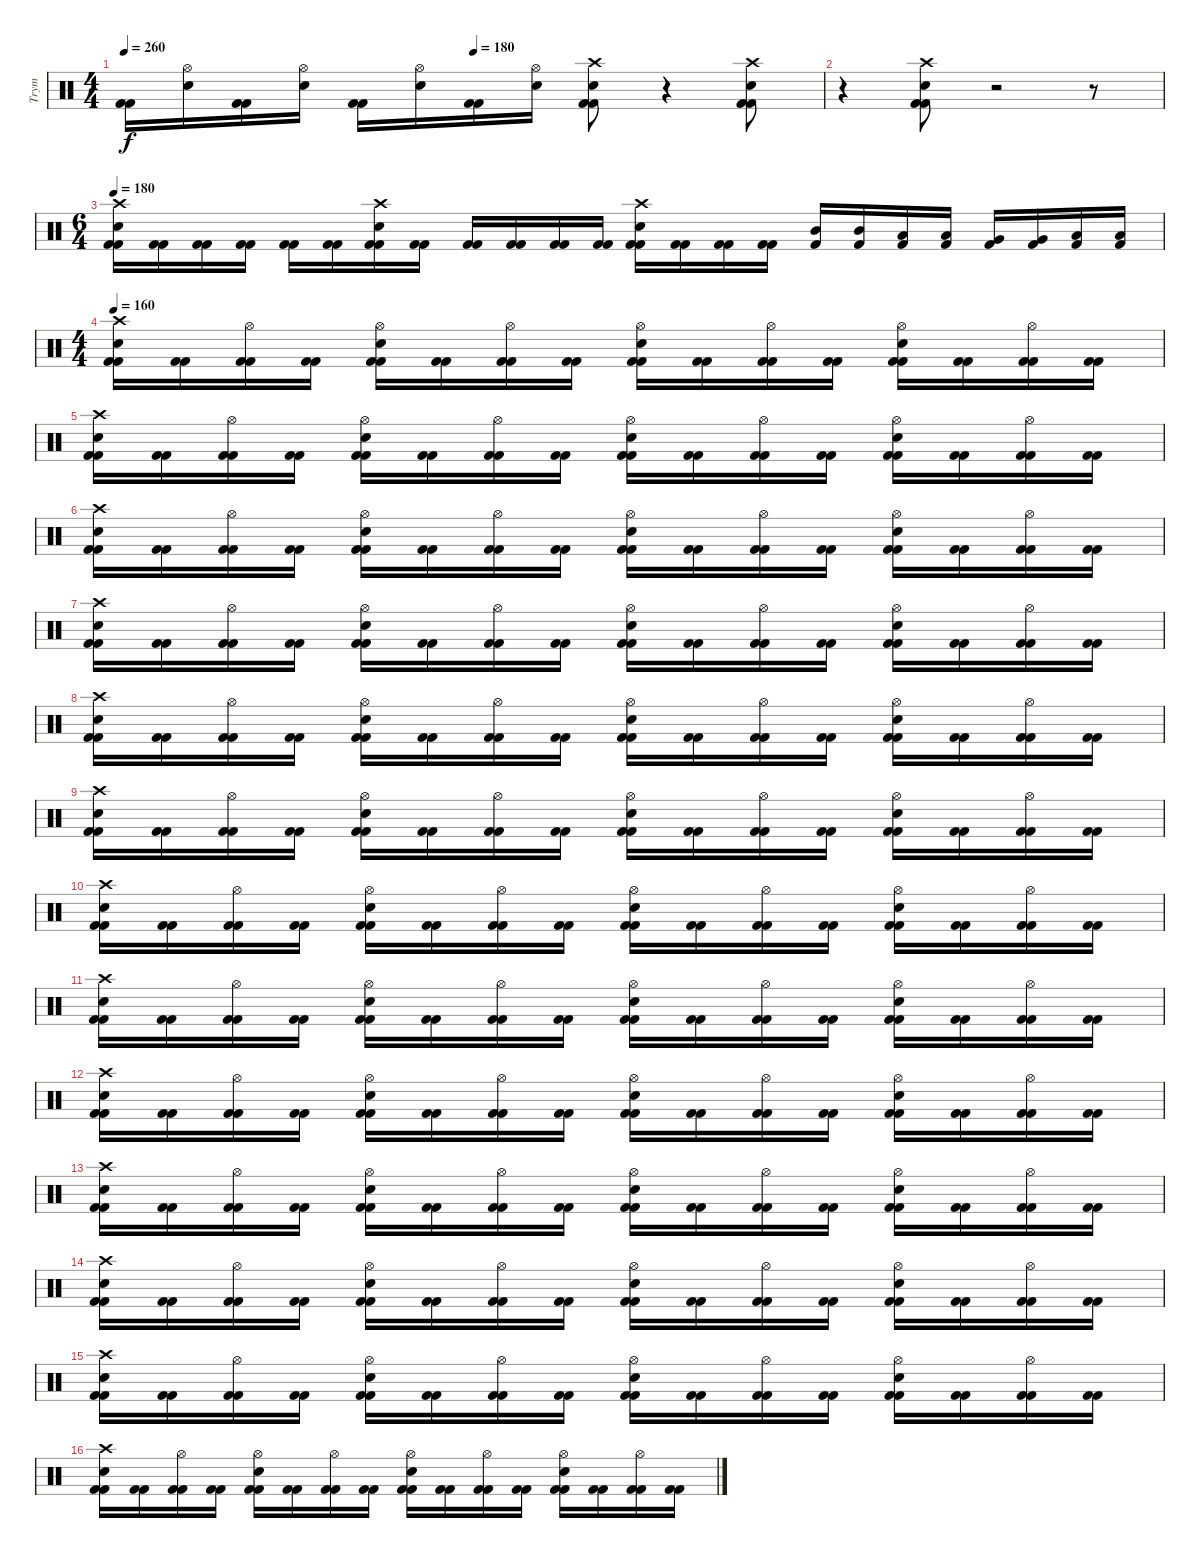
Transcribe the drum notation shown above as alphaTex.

\track ("Trym" "Trym") {instrument percussion}
\staff {score}
\articulation defaults
\ts (4 4)
\tempo 260
\tempo (180 0.5)
\clef neutral
\ks c
("Kick (hit) 2" "Kick (hit) 2").16{dy f} ("Hi-Hat (open)" "Snare (hit) 2").16 ("Kick (hit) 2" "Kick (hit) 2").16 ("Hi-Hat (open)" "Snare (hit) 2").16 ("Kick (hit) 2" "Kick (hit) 2").16 ("Hi-Hat (open)" "Snare (hit) 2").16 ("Kick (hit) 2" "Kick (hit) 2").16 ("Hi-Hat (open)" "Snare (hit) 2").16 ("Kick (hit) 2" "Crash high (hit)" "Snare (hit) 2" "Kick (hit) 2").8 r.4 ("Kick (hit) 2" "Crash high (hit)" "Snare (hit) 2" "Kick (hit) 2").8 |
r.4 ("Kick (hit) 2" "Crash high (hit)" "Snare (hit) 2" "Kick (hit) 2").8 r.2 r.8 |
\ts (6 4)
\tempo 180
("Kick (hit) 2" "Crash high (hit)" "Snare (hit) 2" "Kick (hit) 2").16 ("Kick (hit) 2" "Kick (hit) 2").16 ("Kick (hit) 2" "Kick (hit) 2").16 ("Kick (hit) 2" "Kick (hit) 2").16 ("Kick (hit) 2" "Kick (hit) 2").16 ("Kick (hit) 2" "Kick (hit) 2").16 ("Kick (hit) 2" "Crash high (hit)" "Snare (hit) 2" "Kick (hit) 2").16 ("Kick (hit) 2" "Kick (hit) 2").16 ("Kick (hit) 2" "Kick (hit) 2").16 ("Kick (hit) 2" "Kick (hit) 2").16 ("Kick (hit) 2" "Kick (hit) 2").16 ("Kick (hit) 2" "Kick (hit) 2").16 ("Kick (hit) 2" "Crash high (hit)" "Snare (hit) 2" "Kick (hit) 2").16 ("Kick (hit) 2" "Kick (hit) 2").16 ("Kick (hit) 2" "Kick (hit) 2").16 ("Kick (hit) 2" "Kick (hit) 2").16 ("Mid Tom (hit)" "Kick (hit) 2").16 ("Mid Tom (hit)" "Kick (hit) 2").16 ("Low Tom (hit)" "Kick (hit) 2").16 ("Low Tom (hit)" "Kick (hit) 2").16 ("Very Low Tom (hit)" "Kick (hit) 2").16 ("Very Low Tom (hit)" "Kick (hit) 2").16 ("Low Floor Tom (hit)" "Kick (hit) 2").16 ("Low Floor Tom (hit)" "Kick (hit) 2").16 |
\ts (4 4)
\tempo 160
("Kick (hit) 2" "Crash high (hit)" "Snare (hit) 2" "Kick (hit) 2").16 ("Kick (hit) 2" "Kick (hit) 2").16 ("Kick (hit) 2" "Hi-Hat (open)" "Kick (hit) 2").16 ("Kick (hit) 2" "Kick (hit) 2").16 ("Kick (hit) 2" "Hi-Hat (open)" "Snare (hit) 2" "Kick (hit) 2").16 ("Kick (hit) 2" "Kick (hit) 2").16 ("Kick (hit) 2" "Hi-Hat (open)" "Kick (hit) 2").16 ("Kick (hit) 2" "Kick (hit) 2").16 ("Kick (hit) 2" "Hi-Hat (open)" "Snare (hit) 2" "Kick (hit) 2").16 ("Kick (hit) 2" "Kick (hit) 2").16 ("Kick (hit) 2" "Hi-Hat (open)" "Kick (hit) 2").16 ("Kick (hit) 2" "Kick (hit) 2").16 ("Kick (hit) 2" "Hi-Hat (open)" "Snare (hit) 2" "Kick (hit) 2").16 ("Kick (hit) 2" "Kick (hit) 2").16 ("Kick (hit) 2" "Hi-Hat (open)" "Kick (hit) 2").16 ("Kick (hit) 2" "Kick (hit) 2").16 |
("Kick (hit) 2" "Crash high (hit)" "Snare (hit) 2" "Kick (hit) 2").16 ("Kick (hit) 2" "Kick (hit) 2").16 ("Kick (hit) 2" "Hi-Hat (open)" "Kick (hit) 2").16 ("Kick (hit) 2" "Kick (hit) 2").16 ("Kick (hit) 2" "Hi-Hat (open)" "Snare (hit) 2" "Kick (hit) 2").16 ("Kick (hit) 2" "Kick (hit) 2").16 ("Kick (hit) 2" "Hi-Hat (open)" "Kick (hit) 2").16 ("Kick (hit) 2" "Kick (hit) 2").16 ("Kick (hit) 2" "Hi-Hat (open)" "Snare (hit) 2" "Kick (hit) 2").16 ("Kick (hit) 2" "Kick (hit) 2").16 ("Kick (hit) 2" "Hi-Hat (open)" "Kick (hit) 2").16 ("Kick (hit) 2" "Kick (hit) 2").16 ("Kick (hit) 2" "Hi-Hat (open)" "Snare (hit) 2" "Kick (hit) 2").16 ("Kick (hit) 2" "Kick (hit) 2").16 ("Kick (hit) 2" "Hi-Hat (open)" "Kick (hit) 2").16 ("Kick (hit) 2" "Kick (hit) 2").16 |
("Kick (hit) 2" "Crash high (hit)" "Snare (hit) 2" "Kick (hit) 2").16 ("Kick (hit) 2" "Kick (hit) 2").16 ("Kick (hit) 2" "Hi-Hat (open)" "Kick (hit) 2").16 ("Kick (hit) 2" "Kick (hit) 2").16 ("Kick (hit) 2" "Hi-Hat (open)" "Snare (hit) 2" "Kick (hit) 2").16 ("Kick (hit) 2" "Kick (hit) 2").16 ("Kick (hit) 2" "Hi-Hat (open)" "Kick (hit) 2").16 ("Kick (hit) 2" "Kick (hit) 2").16 ("Kick (hit) 2" "Hi-Hat (open)" "Snare (hit) 2" "Kick (hit) 2").16 ("Kick (hit) 2" "Kick (hit) 2").16 ("Kick (hit) 2" "Hi-Hat (open)" "Kick (hit) 2").16 ("Kick (hit) 2" "Kick (hit) 2").16 ("Kick (hit) 2" "Hi-Hat (open)" "Snare (hit) 2" "Kick (hit) 2").16 ("Kick (hit) 2" "Kick (hit) 2").16 ("Kick (hit) 2" "Hi-Hat (open)" "Kick (hit) 2").16 ("Kick (hit) 2" "Kick (hit) 2").16 |
("Kick (hit) 2" "Crash high (hit)" "Snare (hit) 2" "Kick (hit) 2").16 ("Kick (hit) 2" "Kick (hit) 2").16 ("Kick (hit) 2" "Hi-Hat (open)" "Kick (hit) 2").16 ("Kick (hit) 2" "Kick (hit) 2").16 ("Kick (hit) 2" "Hi-Hat (open)" "Snare (hit) 2" "Kick (hit) 2").16 ("Kick (hit) 2" "Kick (hit) 2").16 ("Kick (hit) 2" "Hi-Hat (open)" "Kick (hit) 2").16 ("Kick (hit) 2" "Kick (hit) 2").16 ("Kick (hit) 2" "Hi-Hat (open)" "Snare (hit) 2" "Kick (hit) 2").16 ("Kick (hit) 2" "Kick (hit) 2").16 ("Kick (hit) 2" "Hi-Hat (open)" "Kick (hit) 2").16 ("Kick (hit) 2" "Kick (hit) 2").16 ("Kick (hit) 2" "Hi-Hat (open)" "Snare (hit) 2" "Kick (hit) 2").16 ("Kick (hit) 2" "Kick (hit) 2").16 ("Kick (hit) 2" "Hi-Hat (open)" "Kick (hit) 2").16 ("Kick (hit) 2" "Kick (hit) 2").16 |
("Kick (hit) 2" "Crash high (hit)" "Snare (hit) 2" "Kick (hit) 2").16 ("Kick (hit) 2" "Kick (hit) 2").16 ("Kick (hit) 2" "Hi-Hat (open)" "Kick (hit) 2").16 ("Kick (hit) 2" "Kick (hit) 2").16 ("Kick (hit) 2" "Hi-Hat (open)" "Snare (hit) 2" "Kick (hit) 2").16 ("Kick (hit) 2" "Kick (hit) 2").16 ("Kick (hit) 2" "Hi-Hat (open)" "Kick (hit) 2").16 ("Kick (hit) 2" "Kick (hit) 2").16 ("Kick (hit) 2" "Hi-Hat (open)" "Snare (hit) 2" "Kick (hit) 2").16 ("Kick (hit) 2" "Kick (hit) 2").16 ("Kick (hit) 2" "Hi-Hat (open)" "Kick (hit) 2").16 ("Kick (hit) 2" "Kick (hit) 2").16 ("Kick (hit) 2" "Hi-Hat (open)" "Snare (hit) 2" "Kick (hit) 2").16 ("Kick (hit) 2" "Kick (hit) 2").16 ("Kick (hit) 2" "Hi-Hat (open)" "Kick (hit) 2").16 ("Kick (hit) 2" "Kick (hit) 2").16 |
("Kick (hit) 2" "Crash high (hit)" "Snare (hit) 2" "Kick (hit) 2").16 ("Kick (hit) 2" "Kick (hit) 2").16 ("Kick (hit) 2" "Hi-Hat (open)" "Kick (hit) 2").16 ("Kick (hit) 2" "Kick (hit) 2").16 ("Kick (hit) 2" "Hi-Hat (open)" "Snare (hit) 2" "Kick (hit) 2").16 ("Kick (hit) 2" "Kick (hit) 2").16 ("Kick (hit) 2" "Hi-Hat (open)" "Kick (hit) 2").16 ("Kick (hit) 2" "Kick (hit) 2").16 ("Kick (hit) 2" "Hi-Hat (open)" "Snare (hit) 2" "Kick (hit) 2").16 ("Kick (hit) 2" "Kick (hit) 2").16 ("Kick (hit) 2" "Hi-Hat (open)" "Kick (hit) 2").16 ("Kick (hit) 2" "Kick (hit) 2").16 ("Kick (hit) 2" "Hi-Hat (open)" "Snare (hit) 2" "Kick (hit) 2").16 ("Kick (hit) 2" "Kick (hit) 2").16 ("Kick (hit) 2" "Hi-Hat (open)" "Kick (hit) 2").16 ("Kick (hit) 2" "Kick (hit) 2").16 |
("Kick (hit) 2" "Crash high (hit)" "Snare (hit) 2" "Kick (hit) 2").16 ("Kick (hit) 2" "Kick (hit) 2").16 ("Kick (hit) 2" "Hi-Hat (open)" "Kick (hit) 2").16 ("Kick (hit) 2" "Kick (hit) 2").16 ("Kick (hit) 2" "Hi-Hat (open)" "Snare (hit) 2" "Kick (hit) 2").16 ("Kick (hit) 2" "Kick (hit) 2").16 ("Kick (hit) 2" "Hi-Hat (open)" "Kick (hit) 2").16 ("Kick (hit) 2" "Kick (hit) 2").16 ("Kick (hit) 2" "Hi-Hat (open)" "Snare (hit) 2" "Kick (hit) 2").16 ("Kick (hit) 2" "Kick (hit) 2").16 ("Kick (hit) 2" "Hi-Hat (open)" "Kick (hit) 2").16 ("Kick (hit) 2" "Kick (hit) 2").16 ("Kick (hit) 2" "Hi-Hat (open)" "Snare (hit) 2" "Kick (hit) 2").16 ("Kick (hit) 2" "Kick (hit) 2").16 ("Kick (hit) 2" "Hi-Hat (open)" "Kick (hit) 2").16 ("Kick (hit) 2" "Kick (hit) 2").16 |
("Kick (hit) 2" "Crash high (hit)" "Snare (hit) 2" "Kick (hit) 2").16 ("Kick (hit) 2" "Kick (hit) 2").16 ("Kick (hit) 2" "Hi-Hat (open)" "Kick (hit) 2").16 ("Kick (hit) 2" "Kick (hit) 2").16 ("Kick (hit) 2" "Hi-Hat (open)" "Snare (hit) 2" "Kick (hit) 2").16 ("Kick (hit) 2" "Kick (hit) 2").16 ("Kick (hit) 2" "Hi-Hat (open)" "Kick (hit) 2").16 ("Kick (hit) 2" "Kick (hit) 2").16 ("Kick (hit) 2" "Hi-Hat (open)" "Snare (hit) 2" "Kick (hit) 2").16 ("Kick (hit) 2" "Kick (hit) 2").16 ("Kick (hit) 2" "Hi-Hat (open)" "Kick (hit) 2").16 ("Kick (hit) 2" "Kick (hit) 2").16 ("Kick (hit) 2" "Hi-Hat (open)" "Snare (hit) 2" "Kick (hit) 2").16 ("Kick (hit) 2" "Kick (hit) 2").16 ("Kick (hit) 2" "Hi-Hat (open)" "Kick (hit) 2").16 ("Kick (hit) 2" "Kick (hit) 2").16 |
("Kick (hit) 2" "Crash high (hit)" "Snare (hit) 2" "Kick (hit) 2").16 ("Kick (hit) 2" "Kick (hit) 2").16 ("Kick (hit) 2" "Hi-Hat (open)" "Kick (hit) 2").16 ("Kick (hit) 2" "Kick (hit) 2").16 ("Kick (hit) 2" "Hi-Hat (open)" "Snare (hit) 2" "Kick (hit) 2").16 ("Kick (hit) 2" "Kick (hit) 2").16 ("Kick (hit) 2" "Hi-Hat (open)" "Kick (hit) 2").16 ("Kick (hit) 2" "Kick (hit) 2").16 ("Kick (hit) 2" "Hi-Hat (open)" "Snare (hit) 2" "Kick (hit) 2").16 ("Kick (hit) 2" "Kick (hit) 2").16 ("Kick (hit) 2" "Hi-Hat (open)" "Kick (hit) 2").16 ("Kick (hit) 2" "Kick (hit) 2").16 ("Kick (hit) 2" "Hi-Hat (open)" "Snare (hit) 2" "Kick (hit) 2").16 ("Kick (hit) 2" "Kick (hit) 2").16 ("Kick (hit) 2" "Hi-Hat (open)" "Kick (hit) 2").16 ("Kick (hit) 2" "Kick (hit) 2").16 |
("Kick (hit) 2" "Crash high (hit)" "Snare (hit) 2" "Kick (hit) 2").16 ("Kick (hit) 2" "Kick (hit) 2").16 ("Kick (hit) 2" "Hi-Hat (open)" "Kick (hit) 2").16 ("Kick (hit) 2" "Kick (hit) 2").16 ("Kick (hit) 2" "Hi-Hat (open)" "Snare (hit) 2" "Kick (hit) 2").16 ("Kick (hit) 2" "Kick (hit) 2").16 ("Kick (hit) 2" "Hi-Hat (open)" "Kick (hit) 2").16 ("Kick (hit) 2" "Kick (hit) 2").16 ("Kick (hit) 2" "Hi-Hat (open)" "Snare (hit) 2" "Kick (hit) 2").16 ("Kick (hit) 2" "Kick (hit) 2").16 ("Kick (hit) 2" "Hi-Hat (open)" "Kick (hit) 2").16 ("Kick (hit) 2" "Kick (hit) 2").16 ("Kick (hit) 2" "Hi-Hat (open)" "Snare (hit) 2" "Kick (hit) 2").16 ("Kick (hit) 2" "Kick (hit) 2").16 ("Kick (hit) 2" "Hi-Hat (open)" "Kick (hit) 2").16 ("Kick (hit) 2" "Kick (hit) 2").16 |
("Kick (hit) 2" "Crash high (hit)" "Snare (hit) 2" "Kick (hit) 2").16 ("Kick (hit) 2" "Kick (hit) 2").16 ("Kick (hit) 2" "Hi-Hat (open)" "Kick (hit) 2").16 ("Kick (hit) 2" "Kick (hit) 2").16 ("Kick (hit) 2" "Hi-Hat (open)" "Snare (hit) 2" "Kick (hit) 2").16 ("Kick (hit) 2" "Kick (hit) 2").16 ("Kick (hit) 2" "Hi-Hat (open)" "Kick (hit) 2").16 ("Kick (hit) 2" "Kick (hit) 2").16 ("Kick (hit) 2" "Hi-Hat (open)" "Snare (hit) 2" "Kick (hit) 2").16 ("Kick (hit) 2" "Kick (hit) 2").16 ("Kick (hit) 2" "Hi-Hat (open)" "Kick (hit) 2").16 ("Kick (hit) 2" "Kick (hit) 2").16 ("Kick (hit) 2" "Hi-Hat (open)" "Snare (hit) 2" "Kick (hit) 2").16 ("Kick (hit) 2" "Kick (hit) 2").16 ("Kick (hit) 2" "Hi-Hat (open)" "Kick (hit) 2").16 ("Kick (hit) 2" "Kick (hit) 2").16 |
("Kick (hit) 2" "Crash high (hit)" "Snare (hit) 2" "Kick (hit) 2").16 ("Kick (hit) 2" "Kick (hit) 2").16 ("Kick (hit) 2" "Hi-Hat (open)" "Kick (hit) 2").16 ("Kick (hit) 2" "Kick (hit) 2").16 ("Kick (hit) 2" "Hi-Hat (open)" "Snare (hit) 2" "Kick (hit) 2").16 ("Kick (hit) 2" "Kick (hit) 2").16 ("Kick (hit) 2" "Hi-Hat (open)" "Kick (hit) 2").16 ("Kick (hit) 2" "Kick (hit) 2").16 ("Kick (hit) 2" "Hi-Hat (open)" "Snare (hit) 2" "Kick (hit) 2").16 ("Kick (hit) 2" "Kick (hit) 2").16 ("Kick (hit) 2" "Hi-Hat (open)" "Kick (hit) 2").16 ("Kick (hit) 2" "Kick (hit) 2").16 ("Kick (hit) 2" "Hi-Hat (open)" "Snare (hit) 2" "Kick (hit) 2").16 ("Kick (hit) 2" "Kick (hit) 2").16 ("Kick (hit) 2" "Hi-Hat (open)" "Kick (hit) 2").16 ("Kick (hit) 2" "Kick (hit) 2").16 |
("Kick (hit) 2" "Crash high (hit)" "Snare (hit) 2" "Kick (hit) 2").16 ("Kick (hit) 2" "Kick (hit) 2").16 ("Kick (hit) 2" "Hi-Hat (open)" "Kick (hit) 2").16 ("Kick (hit) 2" "Kick (hit) 2").16 ("Kick (hit) 2" "Hi-Hat (open)" "Snare (hit) 2" "Kick (hit) 2").16 ("Kick (hit) 2" "Kick (hit) 2").16 ("Kick (hit) 2" "Hi-Hat (open)" "Kick (hit) 2").16 ("Kick (hit) 2" "Kick (hit) 2").16 ("Kick (hit) 2" "Hi-Hat (open)" "Snare (hit) 2" "Kick (hit) 2").16 ("Kick (hit) 2" "Kick (hit) 2").16 ("Kick (hit) 2" "Hi-Hat (open)" "Kick (hit) 2").16 ("Kick (hit) 2" "Kick (hit) 2").16 ("Kick (hit) 2" "Hi-Hat (open)" "Snare (hit) 2" "Kick (hit) 2").16 ("Kick (hit) 2" "Kick (hit) 2").16 ("Kick (hit) 2" "Hi-Hat (open)" "Kick (hit) 2").16 ("Kick (hit) 2" "Kick (hit) 2").16
